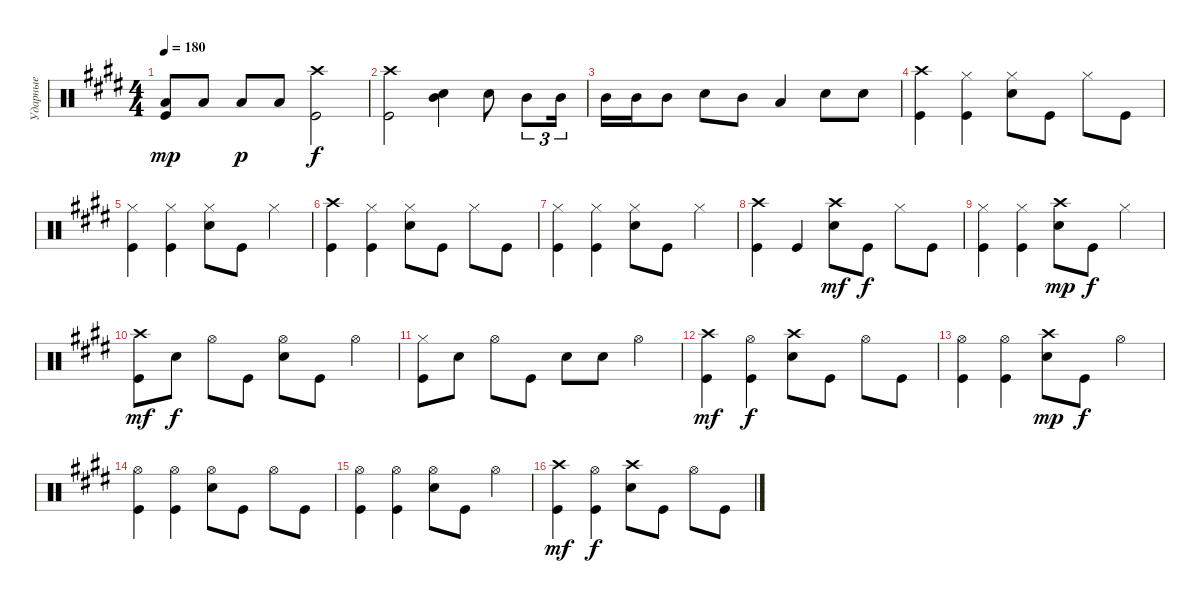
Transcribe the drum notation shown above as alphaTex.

\track ("Ударные" "Ударные") {instrument percussion}
\staff {score}
\articulation defaults
\ts (4 4)
\tempo 180
\clef neutral
\ks c#minor
("Low Tom (hit)" "Kick (hit)").8{dy mp} "Low Tom (hit)".8 "Low Tom (hit)".8{dy p} "Low Tom (hit)".8 ("Kick (hit)" "Crash high (hit)").2{dy f} |
("Kick (hit)" "Crash high (hit)").2 ("Snare (hit) 2" "Mid Tom (hit)").4{bd 60} "Snare (hit) 2".8 "Mid Tom (hit)".8{tu (3 2)} "Mid Tom (hit)".16{tu (3 2)} |
"Mid Tom (hit)".16 "Mid Tom (hit)".16 "Mid Tom (hit)".8 "Snare (hit) 2".8 "Mid Tom (hit)".8 "Low Tom (hit)".4 "Snare (hit) 2".8 "Snare (hit) 2".8 |
("Kick (hit)" "Crash high (hit)").4 ("Kick (hit)" "Hi-Hat (closed)").4 ("Snare (hit) 2" "Hi-Hat (closed)").8 "Kick (hit)".8 "Hi-Hat (closed)".8 "Kick (hit)".8 |
("Kick (hit)" "Hi-Hat (closed)").4 ("Hi-Hat (closed)" "Kick (hit)").4 ("Snare (hit) 2" "Hi-Hat (closed)").8 "Kick (hit)".8 "Hi-Hat (closed)".4 |
("Kick (hit)" "Crash high (hit)").4 ("Kick (hit)" "Hi-Hat (closed)").4 ("Snare (hit) 2" "Hi-Hat (closed)").8 "Kick (hit)".8 "Hi-Hat (closed)".8 "Kick (hit)".8 |
("Kick (hit)" "Hi-Hat (closed)").4 ("Hi-Hat (closed)" "Kick (hit)").4 ("Snare (hit) 2" "Hi-Hat (closed)").8 "Kick (hit)".8 "Hi-Hat (closed)".4 |
("Kick (hit)" "Crash high (hit)").4 "Kick (hit)".4 ("Snare (hit) 2" "Crash high (hit)").8{dy mf} "Kick (hit)".8{dy f} "Hi-Hat (closed)".8 "Kick (hit)".8 |
("Kick (hit)" "Hi-Hat (closed)").4 ("Hi-Hat (closed)" "Kick (hit)").4 ("Snare (hit) 2" "Crash high (hit)").8{dy mp} "Kick (hit)".8{dy f} "Hi-Hat (closed)".4 |
("Kick (hit)" "Crash high (hit)").8{dy mf} "Snare (hit) 2".8{dy f} "Hi-Hat (open)".8 "Kick (hit)".8 ("Snare (hit) 2" "Hi-Hat (open)").8 "Kick (hit)".8 "Hi-Hat (open)".4 |
("Kick (hit)" "Hi-Hat (closed)").8 "Snare (hit) 2".8 "Hi-Hat (open)".8 "Kick (hit)".8 "Snare (hit) 2".8 "Snare (hit) 2".8 "Hi-Hat (open)".4 |
("Kick (hit)" "Crash high (hit)").4{dy mf} ("Kick (hit)" "Hi-Hat (open)").4{dy f} ("Snare (hit) 2" "Crash high (hit)").8 "Kick (hit)".8 "Hi-Hat (open)".8 "Kick (hit)".8 |
("Kick (hit)" "Hi-Hat (open)").4 ("Hi-Hat (open)" "Kick (hit)").4 ("Snare (hit) 2" "Crash high (hit)").8{dy mp} "Kick (hit)".8{dy f} "Hi-Hat (open)".4 |
("Kick (hit)" "Hi-Hat (open)").4 ("Kick (hit)" "Hi-Hat (open)").4 ("Snare (hit) 2" "Hi-Hat (open)").8 "Kick (hit)".8 "Hi-Hat (open)".8 "Kick (hit)".8 |
("Kick (hit)" "Hi-Hat (open)").4 ("Hi-Hat (open)" "Kick (hit)").4 ("Snare (hit) 2" "Hi-Hat (open)").8 "Kick (hit)".8 "Hi-Hat (open)".4 |
("Kick (hit)" "Crash high (hit)").4{dy mf} ("Kick (hit)" "Hi-Hat (open)").4{dy f} ("Snare (hit) 2" "Crash high (hit)").8 "Kick (hit)".8 "Hi-Hat (open)".8 "Kick (hit)".8
